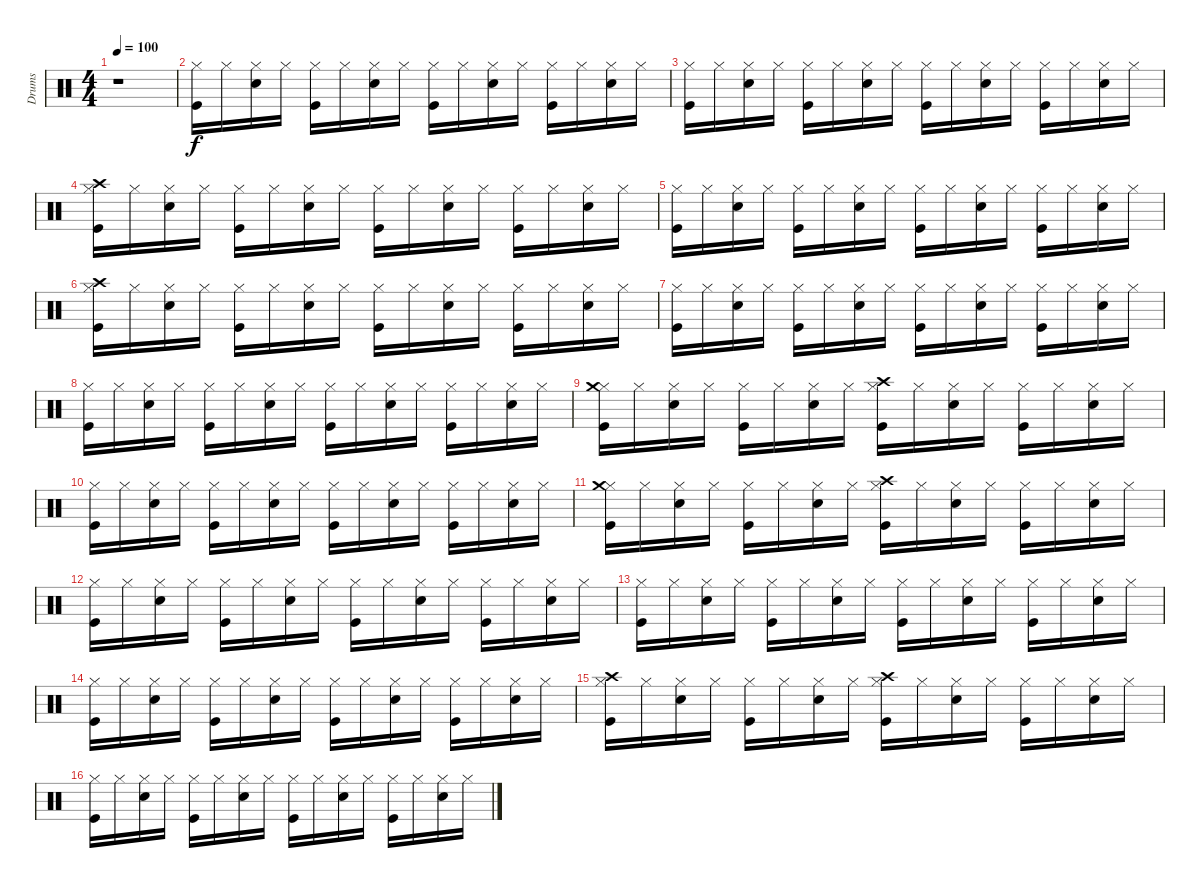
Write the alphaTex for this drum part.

\track ("Drums" "Drums") {instrument percussion}
\staff {score}
\articulation defaults
\ts (4 4)
\tempo 100
\clef neutral
\ks c
r.1{dy f} |
("Kick (hit)" "Hi-Hat (closed)").16 "Hi-Hat (closed)".16 ("Snare (hit) 2" "Hi-Hat (closed)").16 "Hi-Hat (closed)".16 ("Kick (hit)" "Hi-Hat (closed)").16 "Hi-Hat (closed)".16 ("Snare (hit) 2" "Hi-Hat (closed)").16 "Hi-Hat (closed)".16 ("Kick (hit)" "Hi-Hat (closed)").16 "Hi-Hat (closed)".16 ("Snare (hit) 2" "Hi-Hat (closed)").16 "Hi-Hat (closed)".16 ("Kick (hit)" "Hi-Hat (closed)").16 "Hi-Hat (closed)".16 ("Snare (hit) 2" "Hi-Hat (closed)").16 "Hi-Hat (closed)".16 |
("Kick (hit)" "Hi-Hat (closed)").16 "Hi-Hat (closed)".16 ("Snare (hit) 2" "Hi-Hat (closed)").16 "Hi-Hat (closed)".16 ("Kick (hit)" "Hi-Hat (closed)").16 "Hi-Hat (closed)".16 ("Snare (hit) 2" "Hi-Hat (closed)").16 "Hi-Hat (closed)".16 ("Kick (hit)" "Hi-Hat (closed)").16 "Hi-Hat (closed)".16 ("Snare (hit) 2" "Hi-Hat (closed)").16 "Hi-Hat (closed)".16 ("Kick (hit)" "Hi-Hat (closed)").16 "Hi-Hat (closed)".16 ("Snare (hit) 2" "Hi-Hat (closed)").16 "Hi-Hat (closed)".16 |
("Kick (hit)" "Hi-Hat (closed)" "Crash high (hit)").16 "Hi-Hat (closed)".16 ("Snare (hit) 2" "Hi-Hat (closed)").16 "Hi-Hat (closed)".16 ("Kick (hit)" "Hi-Hat (closed)").16 "Hi-Hat (closed)".16 ("Snare (hit) 2" "Hi-Hat (closed)").16 "Hi-Hat (closed)".16 ("Kick (hit)" "Hi-Hat (closed)").16 "Hi-Hat (closed)".16 ("Snare (hit) 2" "Hi-Hat (closed)").16 "Hi-Hat (closed)".16 ("Kick (hit)" "Hi-Hat (closed)").16 "Hi-Hat (closed)".16 ("Snare (hit) 2" "Hi-Hat (closed)").16 "Hi-Hat (closed)".16 |
("Kick (hit)" "Hi-Hat (closed)").16 "Hi-Hat (closed)".16 ("Snare (hit) 2" "Hi-Hat (closed)").16 "Hi-Hat (closed)".16 ("Kick (hit)" "Hi-Hat (closed)").16 "Hi-Hat (closed)".16 ("Snare (hit) 2" "Hi-Hat (closed)").16 "Hi-Hat (closed)".16 ("Kick (hit)" "Hi-Hat (closed)").16 "Hi-Hat (closed)".16 ("Snare (hit) 2" "Hi-Hat (closed)").16 "Hi-Hat (closed)".16 ("Kick (hit)" "Hi-Hat (closed)").16 "Hi-Hat (closed)".16 ("Snare (hit) 2" "Hi-Hat (closed)").16 "Hi-Hat (closed)".16 |
("Kick (hit)" "Hi-Hat (closed)" "Crash high (hit)").16 "Hi-Hat (closed)".16 ("Snare (hit) 2" "Hi-Hat (closed)").16 "Hi-Hat (closed)".16 ("Kick (hit)" "Hi-Hat (closed)").16 "Hi-Hat (closed)".16 ("Snare (hit) 2" "Hi-Hat (closed)").16 "Hi-Hat (closed)".16 ("Kick (hit)" "Hi-Hat (closed)").16 "Hi-Hat (closed)".16 ("Snare (hit) 2" "Hi-Hat (closed)").16 "Hi-Hat (closed)".16 ("Kick (hit)" "Hi-Hat (closed)").16 "Hi-Hat (closed)".16 ("Snare (hit) 2" "Hi-Hat (closed)").16 "Hi-Hat (closed)".16 |
("Kick (hit)" "Hi-Hat (closed)").16 "Hi-Hat (closed)".16 ("Snare (hit) 2" "Hi-Hat (closed)").16 "Hi-Hat (closed)".16 ("Kick (hit)" "Hi-Hat (closed)").16 "Hi-Hat (closed)".16 ("Snare (hit) 2" "Hi-Hat (closed)").16 "Hi-Hat (closed)".16 ("Kick (hit)" "Hi-Hat (closed)").16 "Hi-Hat (closed)".16 ("Snare (hit) 2" "Hi-Hat (closed)").16 "Hi-Hat (closed)".16 ("Kick (hit)" "Hi-Hat (closed)").16 "Hi-Hat (closed)".16 ("Snare (hit) 2" "Hi-Hat (closed)").16 "Hi-Hat (closed)".16 |
("Kick (hit)" "Hi-Hat (closed)").16 "Hi-Hat (closed)".16 ("Snare (hit) 2" "Hi-Hat (closed)").16 "Hi-Hat (closed)".16 ("Kick (hit)" "Hi-Hat (closed)").16 "Hi-Hat (closed)".16 ("Snare (hit) 2" "Hi-Hat (closed)").16 "Hi-Hat (closed)".16 ("Kick (hit)" "Hi-Hat (closed)").16 "Hi-Hat (closed)".16 ("Snare (hit) 2" "Hi-Hat (closed)").16 "Hi-Hat (closed)".16 ("Kick (hit)" "Hi-Hat (closed)").16 "Hi-Hat (closed)".16 ("Snare (hit) 2" "Hi-Hat (closed)").16 "Hi-Hat (closed)".16 |
("Kick (hit)" "Hi-Hat (closed)" "Crash medium (hit)").16 "Hi-Hat (closed)".16 ("Snare (hit) 2" "Hi-Hat (closed)").16 "Hi-Hat (closed)".16 ("Kick (hit)" "Hi-Hat (closed)").16 "Hi-Hat (closed)".16 ("Snare (hit) 2" "Hi-Hat (closed)").16 "Hi-Hat (closed)".16 ("Kick (hit)" "Hi-Hat (closed)" "Crash high (hit)").16 "Hi-Hat (closed)".16 ("Snare (hit) 2" "Hi-Hat (closed)").16 "Hi-Hat (closed)".16 ("Kick (hit)" "Hi-Hat (closed)").16 "Hi-Hat (closed)".16 ("Snare (hit) 2" "Hi-Hat (closed)").16 "Hi-Hat (closed)".16 |
("Kick (hit)" "Hi-Hat (closed)").16 "Hi-Hat (closed)".16 ("Snare (hit) 2" "Hi-Hat (closed)").16 "Hi-Hat (closed)".16 ("Kick (hit)" "Hi-Hat (closed)").16 "Hi-Hat (closed)".16 ("Snare (hit) 2" "Hi-Hat (closed)").16 "Hi-Hat (closed)".16 ("Kick (hit)" "Hi-Hat (closed)").16 "Hi-Hat (closed)".16 ("Snare (hit) 2" "Hi-Hat (closed)").16 "Hi-Hat (closed)".16 ("Kick (hit)" "Hi-Hat (closed)").16 "Hi-Hat (closed)".16 ("Snare (hit) 2" "Hi-Hat (closed)").16 "Hi-Hat (closed)".16 |
("Kick (hit)" "Hi-Hat (closed)" "Crash medium (hit)").16 "Hi-Hat (closed)".16 ("Snare (hit) 2" "Hi-Hat (closed)").16 "Hi-Hat (closed)".16 ("Kick (hit)" "Hi-Hat (closed)").16 "Hi-Hat (closed)".16 ("Snare (hit) 2" "Hi-Hat (closed)").16 "Hi-Hat (closed)".16 ("Kick (hit)" "Hi-Hat (closed)" "Crash high (hit)").16 "Hi-Hat (closed)".16 ("Snare (hit) 2" "Hi-Hat (closed)").16 "Hi-Hat (closed)".16 ("Kick (hit)" "Hi-Hat (closed)").16 "Hi-Hat (closed)".16 ("Snare (hit) 2" "Hi-Hat (closed)").16 "Hi-Hat (closed)".16 |
("Kick (hit)" "Hi-Hat (closed)").16 "Hi-Hat (closed)".16 ("Snare (hit) 2" "Hi-Hat (closed)").16 "Hi-Hat (closed)".16 ("Kick (hit)" "Hi-Hat (closed)").16 "Hi-Hat (closed)".16 ("Snare (hit) 2" "Hi-Hat (closed)").16 "Hi-Hat (closed)".16 ("Kick (hit)" "Hi-Hat (closed)").16 "Hi-Hat (closed)".16 ("Snare (hit) 2" "Hi-Hat (closed)").16 "Hi-Hat (closed)".16 ("Kick (hit)" "Hi-Hat (closed)").16 "Hi-Hat (closed)".16 ("Snare (hit) 2" "Hi-Hat (closed)").16 "Hi-Hat (closed)".16 |
("Kick (hit)" "Hi-Hat (closed)").16 "Hi-Hat (closed)".16 ("Snare (hit) 2" "Hi-Hat (closed)").16 "Hi-Hat (closed)".16 ("Kick (hit)" "Hi-Hat (closed)").16 "Hi-Hat (closed)".16 ("Snare (hit) 2" "Hi-Hat (closed)").16 "Hi-Hat (closed)".16 ("Kick (hit)" "Hi-Hat (closed)").16 "Hi-Hat (closed)".16 ("Snare (hit) 2" "Hi-Hat (closed)").16 "Hi-Hat (closed)".16 ("Kick (hit)" "Hi-Hat (closed)").16 "Hi-Hat (closed)".16 ("Snare (hit) 2" "Hi-Hat (closed)").16 "Hi-Hat (closed)".16 |
("Kick (hit)" "Hi-Hat (closed)").16 "Hi-Hat (closed)".16 ("Snare (hit) 2" "Hi-Hat (closed)").16 "Hi-Hat (closed)".16 ("Kick (hit)" "Hi-Hat (closed)").16 "Hi-Hat (closed)".16 ("Snare (hit) 2" "Hi-Hat (closed)").16 "Hi-Hat (closed)".16 ("Kick (hit)" "Hi-Hat (closed)").16 "Hi-Hat (closed)".16 ("Snare (hit) 2" "Hi-Hat (closed)").16 "Hi-Hat (closed)".16 ("Kick (hit)" "Hi-Hat (closed)").16 "Hi-Hat (closed)".16 ("Snare (hit) 2" "Hi-Hat (closed)").16 "Hi-Hat (closed)".16 |
("Kick (hit)" "Hi-Hat (closed)" "Crash high (hit)").16 "Hi-Hat (closed)".16 ("Snare (hit) 2" "Hi-Hat (closed)").16 "Hi-Hat (closed)".16 ("Kick (hit)" "Hi-Hat (closed)").16 "Hi-Hat (closed)".16 ("Snare (hit) 2" "Hi-Hat (closed)").16 "Hi-Hat (closed)".16 ("Kick (hit)" "Hi-Hat (closed)" "Crash high (hit)").16 "Hi-Hat (closed)".16 ("Snare (hit) 2" "Hi-Hat (closed)").16 "Hi-Hat (closed)".16 ("Kick (hit)" "Hi-Hat (closed)").16 "Hi-Hat (closed)".16 ("Snare (hit) 2" "Hi-Hat (closed)").16 "Hi-Hat (closed)".16 |
("Kick (hit)" "Hi-Hat (closed)").16 "Hi-Hat (closed)".16 ("Snare (hit) 2" "Hi-Hat (closed)").16 "Hi-Hat (closed)".16 ("Kick (hit)" "Hi-Hat (closed)").16 "Hi-Hat (closed)".16 ("Snare (hit) 2" "Hi-Hat (closed)").16 "Hi-Hat (closed)".16 ("Kick (hit)" "Hi-Hat (closed)").16 "Hi-Hat (closed)".16 ("Snare (hit) 2" "Hi-Hat (closed)").16 "Hi-Hat (closed)".16 ("Kick (hit)" "Hi-Hat (closed)").16 "Hi-Hat (closed)".16 ("Snare (hit) 2" "Hi-Hat (closed)").16 "Hi-Hat (closed)".16
